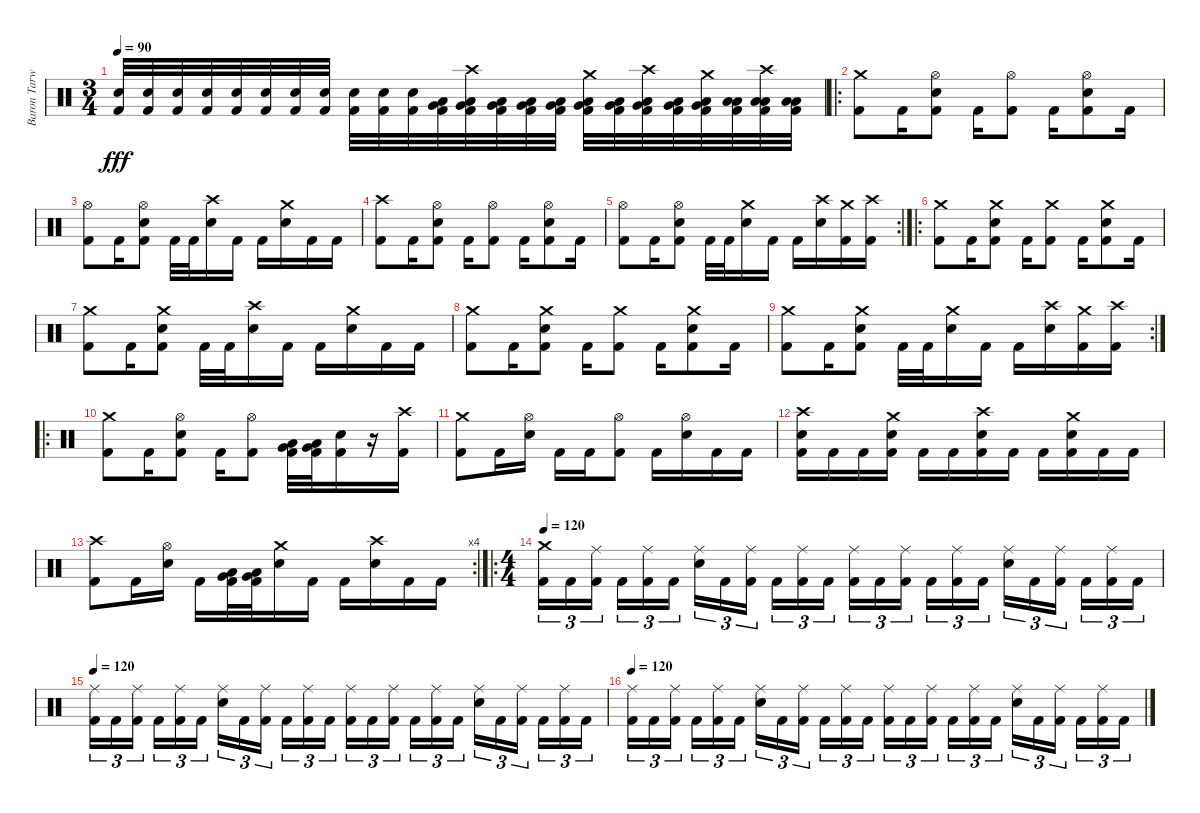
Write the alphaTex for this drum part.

\track ("Baron Tarwonen" "Baron Tarw") {instrument percussion}
\staff {score}
\articulation defaults
\ts (3 4)
\tempo 90
\clef neutral
\ks c
("Snare (hit) 2" "Kick (hit) 2").32{dy fff} ("Snare (hit) 2" "Kick (hit) 2").32 ("Snare (hit) 2" "Kick (hit) 2").32 ("Snare (hit) 2" "Kick (hit) 2").32 ("Snare (hit) 2" "Kick (hit) 2").32 ("Snare (hit) 2" "Kick (hit) 2").32 ("Snare (hit) 2" "Kick (hit) 2").32 ("Snare (hit) 2" "Kick (hit) 2").32 ("Snare (hit) 2" "Kick (hit) 2").32 ("Snare (hit) 2" "Kick (hit) 2").32 ("Snare (hit) 2" "Kick (hit) 2").32 ("Low Tom (hit)" "Very Low Tom (hit)" "Kick (hit) 2").32 ("Crash high (hit)" "Low Tom (hit)" "Very Low Tom (hit)" "Kick (hit) 2").32 ("Low Tom (hit)" "Very Low Tom (hit)" "Kick (hit) 2").32 ("Low Tom (hit)" "Very Low Tom (hit)" "Kick (hit) 2").32 ("Low Tom (hit)" "Very Low Tom (hit)" "Kick (hit) 2").32 ("Crash medium (hit)" "Low Tom (hit)" "Very Low Tom (hit)" "Kick (hit) 2").32 ("Very Low Tom (hit)" "Low Floor Tom (hit)" "Kick (hit) 2").32 ("Crash high (hit)" "Very Low Tom (hit)" "Low Floor Tom (hit)" "Kick (hit) 2").32 ("Very Low Tom (hit)" "Low Floor Tom (hit)" "Kick (hit) 2").32 ("Crash medium (hit)" "Very Low Tom (hit)" "Low Floor Tom (hit)" "Kick (hit) 2").32 ("Low Floor Tom (hit)" "Low Floor Tom (hit)" "Kick (hit) 2").32 ("Crash high (hit)" "Low Floor Tom (hit)" "Low Floor Tom (hit)" "Kick (hit) 2").32 ("Low Floor Tom (hit)" "Low Floor Tom (hit)" "Kick (hit) 2").32 |
\ro
("Crash medium (hit)" "Kick (hit) 2").8 "Kick (hit) 2".16 ("Hi-Hat (open)" "Snare (hit) 2" "Kick (hit) 2").8 "Kick (hit) 2".16 ("Hi-Hat (open)" "Kick (hit) 2").8 "Kick (hit) 2".16 ("Hi-Hat (open)" "Snare (hit) 2" "Kick (hit) 2").8 "Kick (hit) 2".16 |
("Hi-Hat (open)" "Kick (hit) 2").8 "Kick (hit) 2".16 ("Hi-Hat (open)" "Snare (hit) 2" "Kick (hit) 2").8 "Kick (hit) 2".32 "Kick (hit) 2".32 ("Crash high (hit)" "Snare (hit) 2").16 "Kick (hit) 2".16 "Kick (hit) 2".16 ("Crash medium (hit)" "Snare (hit) 2").16 "Kick (hit) 2".16 "Kick (hit) 2".16 |
("Crash high (hit)" "Kick (hit) 2").8 "Kick (hit) 2".16 ("Hi-Hat (open)" "Snare (hit) 2" "Kick (hit) 2").8 "Kick (hit) 2".16 ("Hi-Hat (open)" "Kick (hit) 2").8 "Kick (hit) 2".16 ("Hi-Hat (open)" "Snare (hit) 2" "Kick (hit) 2").8 "Kick (hit) 2".16 |
\rc 2
("Hi-Hat (open)" "Kick (hit) 2").8 "Kick (hit) 2".16 ("Hi-Hat (open)" "Snare (hit) 2" "Kick (hit) 2").8 "Kick (hit) 2".32 "Kick (hit) 2".32 ("Crash medium (hit)" "Snare (hit) 2").16 "Kick (hit) 2".16 "Kick (hit) 2".16 ("Crash high (hit)" "Snare (hit) 2").16 ("Crash medium (hit)" "Kick (hit) 2").16 ("Crash high (hit)" "Kick (hit) 2").16 |
\ro
("Crash medium (hit)" "Kick (hit) 2").8 "Kick (hit) 2".16 ("Crash medium (hit)" "Snare (hit) 2" "Kick (hit) 2").8 "Kick (hit) 2".16 ("Crash medium (hit)" "Kick (hit) 2").8 "Kick (hit) 2".16 ("Crash medium (hit)" "Snare (hit) 2" "Kick (hit) 2").8 "Kick (hit) 2".16 |
("Crash medium (hit)" "Kick (hit) 2").8 "Kick (hit) 2".16 ("Crash medium (hit)" "Snare (hit) 2" "Kick (hit) 2").8 "Kick (hit) 2".32 "Kick (hit) 2".32 ("Crash high (hit)" "Snare (hit) 2").16 "Kick (hit) 2".16 "Kick (hit) 2".16 ("Crash medium (hit)" "Snare (hit) 2").16 "Kick (hit) 2".16 "Kick (hit) 2".16 |
("Crash medium (hit)" "Kick (hit) 2").8 "Kick (hit) 2".16 ("Crash medium (hit)" "Snare (hit) 2" "Kick (hit) 2").8 "Kick (hit) 2".16 ("Crash medium (hit)" "Kick (hit) 2").8 "Kick (hit) 2".16 ("Crash medium (hit)" "Snare (hit) 2" "Kick (hit) 2").8 "Kick (hit) 2".16 |
\rc 2
("Crash medium (hit)" "Kick (hit) 2").8 "Kick (hit) 2".16 ("Crash medium (hit)" "Snare (hit) 2" "Kick (hit) 2").8 "Kick (hit) 2".32 "Kick (hit) 2".32 ("Crash medium (hit)" "Snare (hit) 2").16 "Kick (hit) 2".16 "Kick (hit) 2".16 ("Crash high (hit)" "Snare (hit) 2").16 ("Crash medium (hit)" "Kick (hit) 2").16 ("Crash high (hit)" "Kick (hit) 2").16 |
\ro
("Crash medium (hit)" "Kick (hit) 2").8 "Kick (hit) 2".16 ("Hi-Hat (open)" "Snare (hit) 2" "Kick (hit) 2").8 "Kick (hit) 2".16 ("Hi-Hat (open)" "Kick (hit) 2").8 ("Very Low Tom (hit)" "Low Floor Tom (hit)" "Kick (hit) 2").32 ("Very Low Tom (hit)" "Low Floor Tom (hit)" "Kick (hit) 2").32 ("Snare (hit) 2" "Kick (hit) 2").16 r.16 ("Crash high (hit)" "Kick (hit) 2").16 |
("Crash medium (hit)" "Kick (hit) 2").8 "Kick (hit) 2".16 ("Hi-Hat (open)" "Snare (hit) 2").16 "Kick (hit) 2".16 "Kick (hit) 2".16 ("Hi-Hat (open)" "Kick (hit) 2").8 "Kick (hit) 2".16 ("Hi-Hat (open)" "Snare (hit) 2").16 "Kick (hit) 2".16 "Kick (hit) 2".16 |
("Crash high (hit)" "Snare (hit) 2" "Kick (hit) 2").16 "Kick (hit) 2".16 "Kick (hit) 2".16 ("Crash medium (hit)" "Snare (hit) 2" "Kick (hit) 2").16 "Kick (hit) 2".16 "Kick (hit) 2".16 ("Crash high (hit)" "Snare (hit) 2" "Kick (hit) 2").16 "Kick (hit) 2".16 "Kick (hit) 2".16 ("Crash medium (hit)" "Snare (hit) 2" "Kick (hit) 2").16 "Kick (hit) 2".16 "Kick (hit) 2".16 |
\rc 4
("Crash high (hit)" "Kick (hit) 2").8 "Kick (hit) 2".16 ("Hi-Hat (open)" "Snare (hit) 2").16 "Kick (hit) 2".16 ("Very Low Tom (hit)" "Low Floor Tom (hit)" "Kick (hit) 2").32 ("Very Low Tom (hit)" "Low Floor Tom (hit)" "Kick (hit) 2").32 ("Crash medium (hit)" "Snare (hit) 2").16 "Kick (hit) 2".16 "Kick (hit) 2".16 ("Crash high (hit)" "Snare (hit) 2").16 "Kick (hit) 2".16 "Kick (hit) 2".16 |
\ro
\ts (4 4)
\tempo 120
("Crash medium (hit)" "Kick (hit) 2").16{tu (3 2)} "Kick (hit) 2".16{tu (3 2)} ("Ride (middle)" "Kick (hit) 2").16{tu (3 2)} "Kick (hit) 2".16{tu (3 2)} ("Ride (middle)" "Kick (hit) 2").16{tu (3 2)} "Kick (hit) 2".16{tu (3 2)} ("Ride (middle)" "Snare (hit) 2").16{tu (3 2)} "Kick (hit) 2".16{tu (3 2)} ("Ride (middle)" "Kick (hit) 2").16{tu (3 2)} "Kick (hit) 2".16{tu (3 2)} ("Ride (middle)" "Kick (hit) 2").16{tu (3 2)} "Kick (hit) 2".16{tu (3 2)} ("Ride (middle)" "Kick (hit) 2").16{tu (3 2)} "Kick (hit) 2".16{tu (3 2)} ("Ride (middle)" "Kick (hit) 2").16{tu (3 2)} "Kick (hit) 2".16{tu (3 2)} ("Ride (middle)" "Kick (hit) 2").16{tu (3 2)} "Kick (hit) 2".16{tu (3 2)} ("Ride (middle)" "Snare (hit) 2").16{tu (3 2)} "Kick (hit) 2".16{tu (3 2)} ("Ride (middle)" "Kick (hit) 2").16{tu (3 2)} "Kick (hit) 2".16{tu (3 2)} ("Ride (middle)" "Kick (hit) 2").16{tu (3 2)} "Kick (hit) 2".16{tu (3 2)} |
\tempo 120
("Ride (middle)" "Kick (hit) 2").16{tu (3 2)} "Kick (hit) 2".16{tu (3 2)} ("Ride (middle)" "Kick (hit) 2").16{tu (3 2)} "Kick (hit) 2".16{tu (3 2)} ("Ride (middle)" "Kick (hit) 2").16{tu (3 2)} "Kick (hit) 2".16{tu (3 2)} ("Ride (middle)" "Snare (hit) 2").16{tu (3 2)} "Kick (hit) 2".16{tu (3 2)} ("Ride (middle)" "Kick (hit) 2").16{tu (3 2)} "Kick (hit) 2".16{tu (3 2)} ("Ride (middle)" "Kick (hit) 2").16{tu (3 2)} "Kick (hit) 2".16{tu (3 2)} ("Ride (middle)" "Kick (hit) 2").16{tu (3 2)} "Kick (hit) 2".16{tu (3 2)} ("Ride (middle)" "Kick (hit) 2").16{tu (3 2)} "Kick (hit) 2".16{tu (3 2)} ("Ride (middle)" "Kick (hit) 2").16{tu (3 2)} "Kick (hit) 2".16{tu (3 2)} ("Ride (middle)" "Snare (hit) 2").16{tu (3 2)} "Kick (hit) 2".16{tu (3 2)} ("Ride (middle)" "Kick (hit) 2").16{tu (3 2)} "Kick (hit) 2".16{tu (3 2)} ("Ride (middle)" "Kick (hit) 2").16{tu (3 2)} "Kick (hit) 2".16{tu (3 2)} |
\tempo 120
("Ride (middle)" "Kick (hit) 2").16{tu (3 2)} "Kick (hit) 2".16{tu (3 2)} ("Ride (middle)" "Kick (hit) 2").16{tu (3 2)} "Kick (hit) 2".16{tu (3 2)} ("Ride (middle)" "Kick (hit) 2").16{tu (3 2)} "Kick (hit) 2".16{tu (3 2)} ("Ride (middle)" "Snare (hit) 2").16{tu (3 2)} "Kick (hit) 2".16{tu (3 2)} ("Ride (middle)" "Kick (hit) 2").16{tu (3 2)} "Kick (hit) 2".16{tu (3 2)} ("Ride (middle)" "Kick (hit) 2").16{tu (3 2)} "Kick (hit) 2".16{tu (3 2)} ("Ride (middle)" "Kick (hit) 2").16{tu (3 2)} "Kick (hit) 2".16{tu (3 2)} ("Ride (middle)" "Kick (hit) 2").16{tu (3 2)} "Kick (hit) 2".16{tu (3 2)} ("Ride (middle)" "Kick (hit) 2").16{tu (3 2)} "Kick (hit) 2".16{tu (3 2)} ("Ride (middle)" "Snare (hit) 2").16{tu (3 2)} "Kick (hit) 2".16{tu (3 2)} ("Ride (middle)" "Kick (hit) 2").16{tu (3 2)} "Kick (hit) 2".16{tu (3 2)} ("Ride (middle)" "Kick (hit) 2").16{tu (3 2)} "Kick (hit) 2".16{tu (3 2)}
